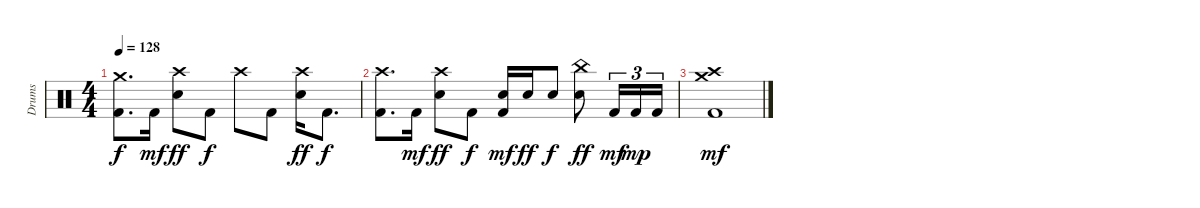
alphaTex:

\track ("Drums" "Drums") {instrument percussion}
\staff {score}
\articulation defaults
\ts (4 4)
\tempo 128
\clef neutral
\ks c
("Crash medium (hit)" "Kick (hit) 2").8{d dy f} "Kick (hit) 2".16{dy mf} ("Crash high (hit)" "Electric Snare (hit)").8{dy ff} "Kick (hit) 2".8{dy f} "Crash high (hit)".8 "Kick (hit) 2".8 ("Crash high (hit)" "Electric Snare (hit)").16{dy ff} "Kick (hit) 2".8{d dy f} |
("Crash high (hit)" "Kick (hit) 2").8{d} "Kick (hit) 2".16{dy mf} ("Crash high (hit)" "Electric Snare (hit)").8{dy ff} "Kick (hit) 2".8{dy f} ("Electric Snare (hit)" "Kick (hit) 2").16{dy mf} "Electric Snare (hit)".16{dy ff} "Electric Snare (hit)".8{dy f} ("China (hit)" "Electric Snare (hit)").8{dy ff} "Kick (hit) 2".16{tu (3 2) dy mf} "Kick (hit) 2".16{tu (3 2) dy mp} "Kick (hit) 2".16{tu (3 2)} |
("Crash medium (hit)" "Crash high (hit)" "Kick (hit) 2").1{dy mf}
